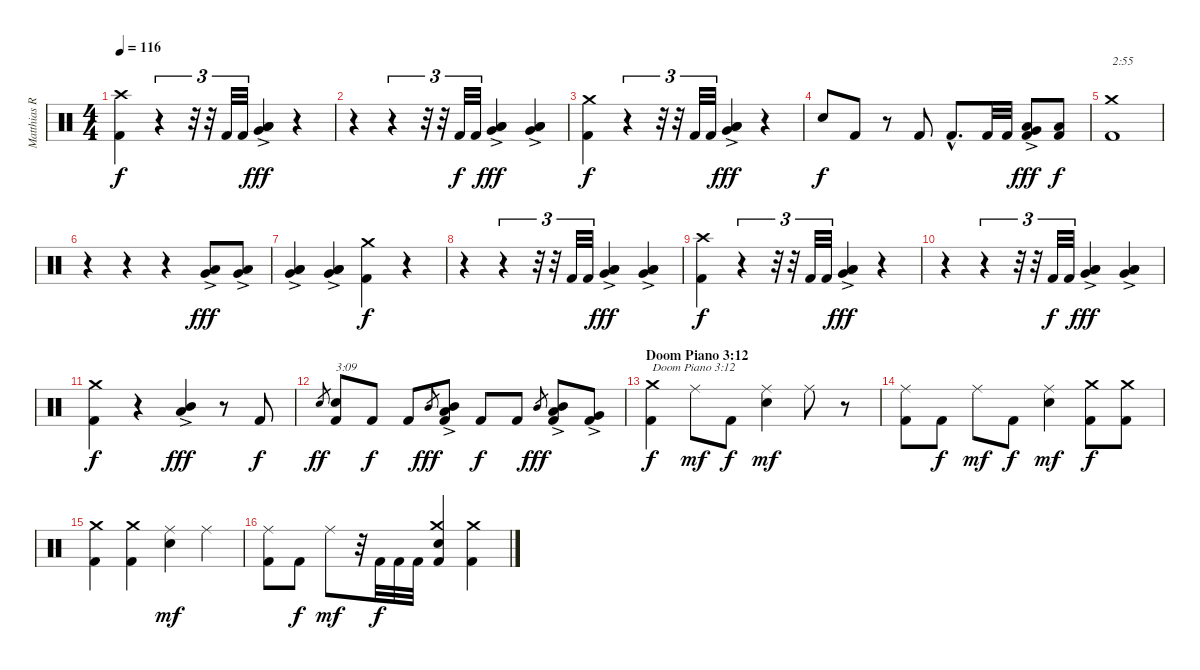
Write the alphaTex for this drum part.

\track ("Matthias R." "Matthias R") {instrument percussion}
\staff {score}
\articulation defaults
\ts (4 4)
\tempo 116
\clef neutral
\ks c
("Kick (hit) 2" "Crash high (hit)").4{dy f} r.4{tu (3 2)} r.32{tu (3 2)} r.32{tu (3 2)} "Kick (hit) 2".32{tu (3 2)} "Kick (hit) 2".32{tu (3 2)} ("Low Floor Tom (hit)" "Low Tom (hit)"{ac} "Very Low Tom (hit)"{ac}).4{dy fff} r.4 |
r.4 r.4{tu (3 2)} r.32{tu (3 2)} r.32{tu (3 2)} "Kick (hit) 2".32{tu (3 2) dy f} "Kick (hit) 2".32{tu (3 2)} ("Low Floor Tom (hit)" "Low Tom (hit)"{ac} "Very Low Tom (hit)"{ac}).4{dy fff} ("Low Floor Tom (hit)"{ac} "Low Tom (hit)"{ac} "Very Low Tom (hit)"{ac}).4 |
("Kick (hit) 2" "Crash medium (hit)").4{dy f} r.4{tu (3 2)} r.32{tu (3 2)} r.32{tu (3 2)} "Kick (hit) 2".32{tu (3 2)} "Kick (hit) 2".32{tu (3 2)} ("Low Floor Tom (hit)" "Low Tom (hit)"{ac} "Very Low Tom (hit)"{ac}).4{dy fff} r.4 |
"Electric Snare (hit)".8{dy f} "Kick (hit) 2".8 r.8 "Kick (hit) 2".8 "Kick (hit) 2"{hac}.8{d} "Kick (hit) 2".32 "Kick (hit) 2".32 ("Kick (hit) 2" "Low Tom (hit)"{ac} "Very Low Tom (hit)"{ac}).8{dy fff} ("Kick (hit) 2" "Low Floor Tom (hit)").8{dy f} |
("Kick (hit) 2" "Crash medium (hit)").1{txt "2:55"} |
r.4 r.4 r.4 ("Low Floor Tom (hit)"{ac} "Very Low Tom (hit)"{ac}).8{dy fff} ("Low Floor Tom (hit)"{ac} "Very Low Tom (hit)"{ac}).8 |
("Low Floor Tom (hit)"{ac} "Low Tom (hit)"{ac} "Very Low Tom (hit)"{ac}).4 ("Low Floor Tom (hit)"{ac} "Low Tom (hit)"{ac} "Very Low Tom (hit)"{ac}).4 ("Kick (hit) 2" "Crash medium (hit)").4{dy f} r.4 |
r.4 r.4{tu (3 2)} r.32{tu (3 2)} r.32{tu (3 2)} "Kick (hit) 2".32{tu (3 2)} "Kick (hit) 2".32{tu (3 2)} ("Low Floor Tom (hit)" "Low Tom (hit)"{ac} "Very Low Tom (hit)"{ac}).4{dy fff} ("Low Floor Tom (hit)"{ac} "Low Tom (hit)"{ac} "Very Low Tom (hit)"{ac}).4 |
("Kick (hit) 2" "Crash high (hit)").4{dy f} r.4{tu (3 2)} r.32{tu (3 2)} r.32{tu (3 2)} "Kick (hit) 2".32{tu (3 2)} "Kick (hit) 2".32{tu (3 2)} ("Low Floor Tom (hit)" "Low Tom (hit)"{ac} "Very Low Tom (hit)"{ac}).4{dy fff} r.4 |
r.4 r.4{tu (3 2)} r.32{tu (3 2)} r.32{tu (3 2)} "Kick (hit) 2".32{tu (3 2) dy f} "Kick (hit) 2".32{tu (3 2)} ("Low Floor Tom (hit)" "Low Tom (hit)"{ac} "Very Low Tom (hit)"{ac}).4{dy fff} ("Low Floor Tom (hit)"{ac} "Low Tom (hit)"{ac} "Very Low Tom (hit)"{ac}).4 |
("Kick (hit) 2" "Crash medium (hit)").4{dy f} r.4 ("Mid Tom (hit)" "Low Tom (hit)"{ac}).4{dy fff} r.8 "Kick (hit) 2".8{dy f} |
"Electric Snare (hit)".8{gr dy ff} ("Kick (hit) 2" "Electric Snare (hit)").8{txt "3:09"} "Kick (hit) 2".8{dy f} "Kick (hit) 2".8 "Mid Tom (hit)".8{gr dy fff} ("Kick (hit) 2" "Mid Tom (hit)"{ac} "Low Tom (hit)"{ac}).8 "Kick (hit) 2".8{dy f} "Kick (hit) 2".8 "Mid Tom (hit)".8{gr dy fff} ("Kick (hit) 2" "Mid Tom (hit)"{ac} "Low Tom (hit)"{ac}).8 ("Kick (hit) 2" "Very Low Tom (hit)"{ac}).8 |
\section ("" "Doom Piano 3:12")
("Kick (hit) 2" "Crash medium (hit)").4{txt "Doom Piano 3:12" dy f} "Ride (middle)".8{dy mf} "Kick (hit) 2".8{dy f} ("Electric Snare (hit)" "Ride (middle)").4{dy mf} "Ride (middle)".8 r.8 |
("Kick (hit) 2" "Ride (middle)").8 "Kick (hit) 2".8{dy f} "Ride (middle)".8{dy mf} "Kick (hit) 2".8{dy f} ("Electric Snare (hit)" "Ride (middle)").4{dy mf} ("Kick (hit) 2" "Crash medium (hit)").8{dy f} ("Kick (hit) 2" "Crash medium (hit)").8 |
("Kick (hit) 2" "Crash medium (hit)").4 ("Kick (hit) 2" "Crash medium (hit)").4 ("Electric Snare (hit)" "Ride (middle)").4{dy mf} "Ride (middle)".4 |
("Kick (hit) 2" "Ride (middle)").8 "Kick (hit) 2".8{dy f} "Ride (middle)".8{dy mf} r.32 "Kick (hit) 2".32{dy f} "Kick (hit) 2".32 "Kick (hit) 2".32 ("Kick (hit) 2" "Electric Snare (hit)" "Crash medium (hit)").4 ("Kick (hit) 2" "Crash medium (hit)").4
